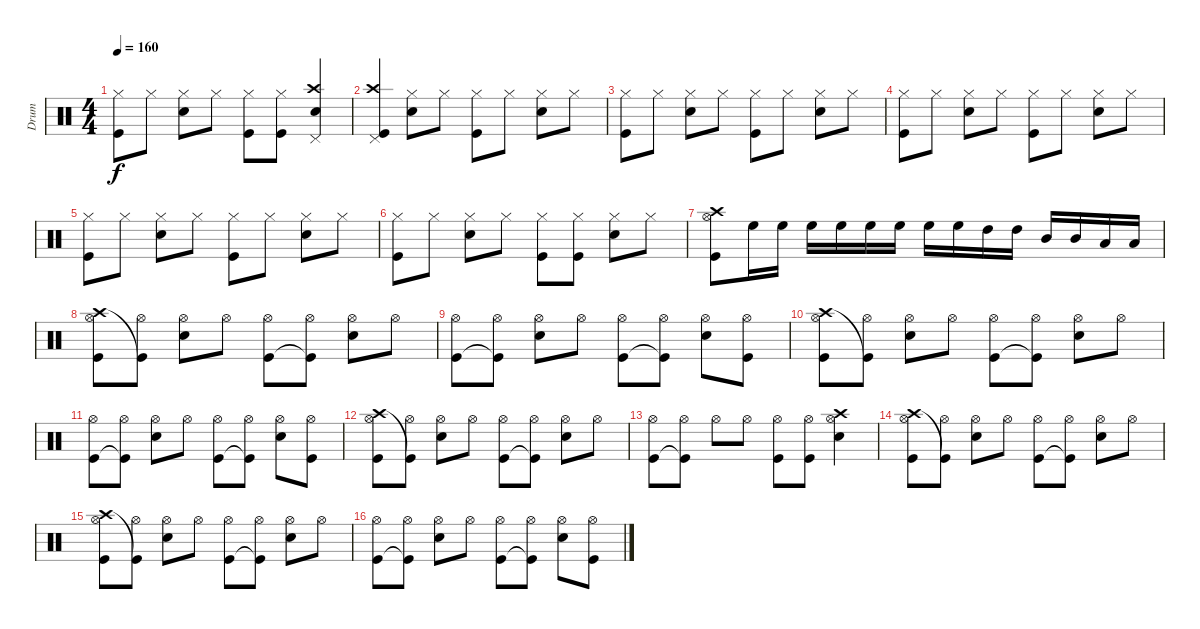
\track ("Drum" "Drum") {instrument percussion}
\staff {score}
\articulation defaults
\ts (4 4)
\tempo 160
\clef neutral
\ks c
("Hi-Hat (closed)" "Kick (hit)").8{dy f} "Hi-Hat (closed)".8 ("Hi-Hat (closed)" "Snare (hit) 2").8 "Hi-Hat (closed)".8 ("Hi-Hat (closed)" "Kick (hit)").8 ("Hi-Hat (closed)" "Kick (hit)").8 ("Crash high (hit)" "Pedal Hi-Hat (hit)" "Snare (hit) 2").4 |
("Crash high (hit)" "Pedal Hi-Hat (hit)" "Kick (hit)").4 ("Hi-Hat (closed)" "Snare (hit) 2").8 "Hi-Hat (closed)".8 ("Hi-Hat (closed)" "Kick (hit)").8 "Hi-Hat (closed)".8 ("Hi-Hat (closed)" "Snare (hit) 2").8 "Hi-Hat (closed)".8 |
("Hi-Hat (closed)" "Kick (hit)").8 "Hi-Hat (closed)".8 ("Hi-Hat (closed)" "Snare (hit) 2").8 "Hi-Hat (closed)".8 ("Hi-Hat (closed)" "Kick (hit)").8 "Hi-Hat (closed)".8 ("Hi-Hat (closed)" "Snare (hit) 2").8 "Hi-Hat (closed)".8 |
("Hi-Hat (closed)" "Kick (hit)").8 "Hi-Hat (closed)".8 ("Hi-Hat (closed)" "Snare (hit) 2").8 "Hi-Hat (closed)".8 ("Hi-Hat (closed)" "Kick (hit)").8 "Hi-Hat (closed)".8 ("Hi-Hat (closed)" "Snare (hit) 2").8 "Hi-Hat (closed)".8 |
("Hi-Hat (closed)" "Kick (hit)").8 "Hi-Hat (closed)".8 ("Hi-Hat (closed)" "Snare (hit) 2").8 "Hi-Hat (closed)".8 ("Hi-Hat (closed)" "Kick (hit)").8 "Hi-Hat (closed)".8 ("Hi-Hat (closed)" "Snare (hit) 2").8 "Hi-Hat (closed)".8 |
("Hi-Hat (closed)" "Kick (hit)").8 "Hi-Hat (closed)".8 ("Hi-Hat (closed)" "Snare (hit) 2").8 "Hi-Hat (closed)".8 ("Hi-Hat (closed)" "Kick (hit)").8 ("Hi-Hat (closed)" "Kick (hit)").8 ("Hi-Hat (closed)" "Snare (hit) 2").8 "Hi-Hat (closed)".8 |
("Crash high (hit)" "Hi-Hat (open)" "Kick (hit)").8 "High Floor Tom (hit)".16 "High Floor Tom (hit)".16 "High Floor Tom (hit)".16 "High Floor Tom (hit)".16 "High Floor Tom (hit)".16 "High Floor Tom (hit)".16 "High Floor Tom (hit)".16 "High Floor Tom (hit)".16 "High Tom (hit)".16 "High Tom (hit)".16 "Mid Tom (hit)".16 "Mid Tom (hit)".16 "Low Tom (hit)".16 "Low Tom (hit)".16 |
("Hi-Hat (open)" "Crash high (hit)" "Kick (hit)").8 ("Hi-Hat (open)" "Kick (hit)"{t}).8 ("Hi-Hat (open)" "Snare (hit) 2").8 "Hi-Hat (open)".8 ("Hi-Hat (open)" "Kick (hit)").8 ("Hi-Hat (open)" "Kick (hit)"{t}).8 ("Hi-Hat (open)" "Snare (hit) 2").8 "Hi-Hat (open)".8 |
("Hi-Hat (open)" "Kick (hit)").8 ("Hi-Hat (open)" "Kick (hit)"{t}).8 ("Hi-Hat (open)" "Snare (hit) 2").8 "Hi-Hat (open)".8 ("Hi-Hat (open)" "Kick (hit)").8 ("Hi-Hat (open)" "Kick (hit)"{t}).8 ("Hi-Hat (open)" "Snare (hit) 2").8 ("Hi-Hat (open)" "Kick (hit)").8 |
("Hi-Hat (open)" "Crash high (hit)" "Kick (hit)").8 ("Hi-Hat (open)" "Kick (hit)"{t}).8 ("Hi-Hat (open)" "Snare (hit) 2").8 "Hi-Hat (open)".8 ("Hi-Hat (open)" "Kick (hit)").8 ("Hi-Hat (open)" "Kick (hit)"{t}).8 ("Hi-Hat (open)" "Snare (hit) 2").8 "Hi-Hat (open)".8 |
("Hi-Hat (open)" "Kick (hit)").8 ("Hi-Hat (open)" "Kick (hit)"{t}).8 ("Hi-Hat (open)" "Snare (hit) 2").8 "Hi-Hat (open)".8 ("Hi-Hat (open)" "Kick (hit)").8 ("Hi-Hat (open)" "Kick (hit)"{t}).8 ("Hi-Hat (open)" "Snare (hit) 2").8 ("Hi-Hat (open)" "Kick (hit)").8 |
("Hi-Hat (open)" "Crash high (hit)" "Kick (hit)").8 ("Hi-Hat (open)" "Kick (hit)"{t}).8 ("Hi-Hat (open)" "Snare (hit) 2").8 "Hi-Hat (open)".8 ("Hi-Hat (open)" "Kick (hit)").8 ("Hi-Hat (open)" "Kick (hit)"{t}).8 ("Hi-Hat (open)" "Snare (hit) 2").8 "Hi-Hat (open)".8 |
("Hi-Hat (open)" "Kick (hit)").8 ("Hi-Hat (open)" "Kick (hit)"{t}).8 "Hi-Hat (open)".8 "Hi-Hat (open)".8 ("Hi-Hat (open)" "Kick (hit)").8 ("Hi-Hat (open)" "Kick (hit)").8 ("Hi-Hat (open)" "Crash high (hit)" "Snare (hit) 2").4 |
("Hi-Hat (open)" "Crash high (hit)" "Kick (hit)").8 ("Hi-Hat (open)" "Kick (hit)"{t}).8 ("Hi-Hat (open)" "Snare (hit) 2").8 "Hi-Hat (open)".8 ("Hi-Hat (open)" "Kick (hit)").8 ("Hi-Hat (open)" "Kick (hit)"{t}).8 ("Hi-Hat (open)" "Snare (hit) 2").8 "Hi-Hat (open)".8 |
("Hi-Hat (open)" "Crash high (hit)" "Kick (hit)").8 ("Hi-Hat (open)" "Kick (hit)"{t}).8 ("Hi-Hat (open)" "Snare (hit) 2").8 "Hi-Hat (open)".8 ("Hi-Hat (open)" "Kick (hit)").8 ("Hi-Hat (open)" "Kick (hit)"{t}).8 ("Hi-Hat (open)" "Snare (hit) 2").8 "Hi-Hat (open)".8 |
("Hi-Hat (open)" "Kick (hit)").8 ("Hi-Hat (open)" "Kick (hit)"{t}).8 ("Hi-Hat (open)" "Snare (hit) 2").8 "Hi-Hat (open)".8 ("Hi-Hat (open)" "Kick (hit)").8 ("Hi-Hat (open)" "Kick (hit)"{t}).8 ("Hi-Hat (open)" "Snare (hit) 2").8 ("Hi-Hat (open)" "Kick (hit)").8
